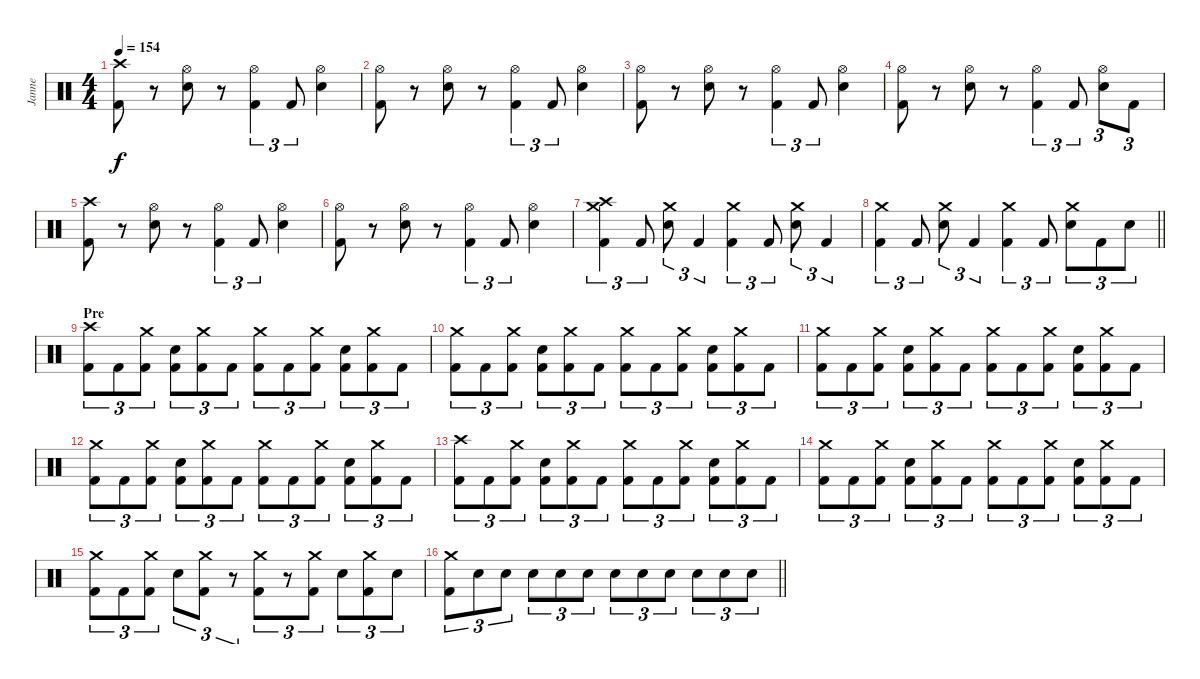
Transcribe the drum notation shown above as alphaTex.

\track ("Janne" "Janne") {instrument percussion}
\staff {score}
\articulation defaults
\ts (4 4)
\tempo 154
\clef neutral
\ks c
("Crash high (hit)" "Kick (hit) 2").8{dy f} r.8 ("Hi-Hat (open)" "Electric Snare (hit)").8 r.8 ("Hi-Hat (open)" "Kick (hit) 2").4{tu (3 2)} "Kick (hit) 2".8{tu (3 2)} ("Hi-Hat (open)" "Electric Snare (hit)").4 |
("Hi-Hat (open)" "Kick (hit) 2").8 r.8 ("Hi-Hat (open)" "Electric Snare (hit)").8 r.8 ("Hi-Hat (open)" "Kick (hit) 2").4{tu (3 2)} "Kick (hit) 2".8{tu (3 2)} ("Hi-Hat (open)" "Electric Snare (hit)").4 |
("Hi-Hat (open)" "Kick (hit) 2").8 r.8 ("Hi-Hat (open)" "Electric Snare (hit)").8 r.8 ("Hi-Hat (open)" "Kick (hit) 2").4{tu (3 2)} "Kick (hit) 2".8{tu (3 2)} ("Hi-Hat (open)" "Electric Snare (hit)").4 |
("Hi-Hat (open)" "Kick (hit) 2").8 r.8 ("Hi-Hat (open)" "Electric Snare (hit)").8 r.8 ("Hi-Hat (open)" "Kick (hit) 2").4{tu (3 2)} "Kick (hit) 2".8{tu (3 2)} ("Hi-Hat (open)" "Electric Snare (hit)").8{tu (3 2)} "Kick (hit) 2".8{tu (3 2)} |
("Crash high (hit)" "Kick (hit) 2").8 r.8 ("Hi-Hat (open)" "Electric Snare (hit)").8 r.8 ("Hi-Hat (open)" "Kick (hit) 2").4{tu (3 2)} "Kick (hit) 2".8{tu (3 2)} ("Hi-Hat (open)" "Electric Snare (hit)").4 |
("Hi-Hat (open)" "Kick (hit) 2").8 r.8 ("Hi-Hat (open)" "Electric Snare (hit)").8 r.8 ("Hi-Hat (open)" "Kick (hit) 2").4{tu (3 2)} "Kick (hit) 2".8{tu (3 2)} ("Hi-Hat (open)" "Electric Snare (hit)").4 |
("Crash high (hit)" "Crash medium (hit)" "Kick (hit) 2").4{tu (3 2)} "Kick (hit) 2".8{tu (3 2)} ("Crash medium (hit)" "Electric Snare (hit)").8{tu (3 2)} "Kick (hit) 2".4{tu (3 2)} ("Crash medium (hit)" "Kick (hit) 2").4{tu (3 2)} "Kick (hit) 2".8{tu (3 2)} ("Crash medium (hit)" "Electric Snare (hit)").8{tu (3 2)} "Kick (hit) 2".4{tu (3 2)} |
\barLineRight lightlight
("Crash medium (hit)" "Kick (hit) 2").4{tu (3 2)} "Kick (hit) 2".8{tu (3 2)} ("Crash medium (hit)" "Electric Snare (hit)").8{tu (3 2)} "Kick (hit) 2".4{tu (3 2)} ("Crash medium (hit)" "Kick (hit) 2").4{tu (3 2)} "Kick (hit) 2".8{tu (3 2)} ("Crash medium (hit)" "Electric Snare (hit)").8{tu (3 2)} "Kick (hit) 2".8{tu (3 2)} "Electric Snare (hit)".8{tu (3 2)} |
\section ("" "Pre")
("Crash high (hit)" "Kick (hit) 2").8{tu (3 2)} "Kick (hit) 2".8{tu (3 2)} ("Crash medium (hit)" "Kick (hit) 2").8{tu (3 2)} ("Electric Snare (hit)" "Kick (hit) 2").8{tu (3 2)} ("Crash medium (hit)" "Kick (hit) 2").8{tu (3 2)} "Kick (hit) 2".8{tu (3 2)} ("Crash medium (hit)" "Kick (hit) 2").8{tu (3 2)} "Kick (hit) 2".8{tu (3 2)} ("Crash medium (hit)" "Kick (hit) 2").8{tu (3 2)} ("Electric Snare (hit)" "Kick (hit) 2").8{tu (3 2)} ("Crash medium (hit)" "Kick (hit) 2").8{tu (3 2)} "Kick (hit) 2".8{tu (3 2)} |
("Crash medium (hit)" "Kick (hit) 2").8{tu (3 2)} "Kick (hit) 2".8{tu (3 2)} ("Crash medium (hit)" "Kick (hit) 2").8{tu (3 2)} ("Electric Snare (hit)" "Kick (hit) 2").8{tu (3 2)} ("Crash medium (hit)" "Kick (hit) 2").8{tu (3 2)} "Kick (hit) 2".8{tu (3 2)} ("Crash medium (hit)" "Kick (hit) 2").8{tu (3 2)} "Kick (hit) 2".8{tu (3 2)} ("Crash medium (hit)" "Kick (hit) 2").8{tu (3 2)} ("Electric Snare (hit)" "Kick (hit) 2").8{tu (3 2)} ("Crash medium (hit)" "Kick (hit) 2").8{tu (3 2)} "Kick (hit) 2".8{tu (3 2)} |
("Crash medium (hit)" "Kick (hit) 2").8{tu (3 2)} "Kick (hit) 2".8{tu (3 2)} ("Crash medium (hit)" "Kick (hit) 2").8{tu (3 2)} ("Electric Snare (hit)" "Kick (hit) 2").8{tu (3 2)} ("Crash medium (hit)" "Kick (hit) 2").8{tu (3 2)} "Kick (hit) 2".8{tu (3 2)} ("Crash medium (hit)" "Kick (hit) 2").8{tu (3 2)} "Kick (hit) 2".8{tu (3 2)} ("Crash medium (hit)" "Kick (hit) 2").8{tu (3 2)} ("Electric Snare (hit)" "Kick (hit) 2").8{tu (3 2)} ("Crash medium (hit)" "Kick (hit) 2").8{tu (3 2)} "Kick (hit) 2".8{tu (3 2)} |
("Crash medium (hit)" "Kick (hit) 2").8{tu (3 2)} "Kick (hit) 2".8{tu (3 2)} ("Crash medium (hit)" "Kick (hit) 2").8{tu (3 2)} ("Electric Snare (hit)" "Kick (hit) 2").8{tu (3 2)} ("Crash medium (hit)" "Kick (hit) 2").8{tu (3 2)} "Kick (hit) 2".8{tu (3 2)} ("Crash medium (hit)" "Kick (hit) 2").8{tu (3 2)} "Kick (hit) 2".8{tu (3 2)} ("Crash medium (hit)" "Kick (hit) 2").8{tu (3 2)} ("Electric Snare (hit)" "Kick (hit) 2").8{tu (3 2)} ("Crash medium (hit)" "Kick (hit) 2").8{tu (3 2)} "Kick (hit) 2".8{tu (3 2)} |
("Crash high (hit)" "Kick (hit) 2").8{tu (3 2)} "Kick (hit) 2".8{tu (3 2)} ("Crash medium (hit)" "Kick (hit) 2").8{tu (3 2)} ("Electric Snare (hit)" "Kick (hit) 2").8{tu (3 2)} ("Crash medium (hit)" "Kick (hit) 2").8{tu (3 2)} "Kick (hit) 2".8{tu (3 2)} ("Crash medium (hit)" "Kick (hit) 2").8{tu (3 2)} "Kick (hit) 2".8{tu (3 2)} ("Crash medium (hit)" "Kick (hit) 2").8{tu (3 2)} ("Electric Snare (hit)" "Kick (hit) 2").8{tu (3 2)} ("Crash medium (hit)" "Kick (hit) 2").8{tu (3 2)} "Kick (hit) 2".8{tu (3 2)} |
("Crash medium (hit)" "Kick (hit) 2").8{tu (3 2)} "Kick (hit) 2".8{tu (3 2)} ("Crash medium (hit)" "Kick (hit) 2").8{tu (3 2)} ("Electric Snare (hit)" "Kick (hit) 2").8{tu (3 2)} ("Crash medium (hit)" "Kick (hit) 2").8{tu (3 2)} "Kick (hit) 2".8{tu (3 2)} ("Crash medium (hit)" "Kick (hit) 2").8{tu (3 2)} "Kick (hit) 2".8{tu (3 2)} ("Crash medium (hit)" "Kick (hit) 2").8{tu (3 2)} ("Electric Snare (hit)" "Kick (hit) 2").8{tu (3 2)} ("Crash medium (hit)" "Kick (hit) 2").8{tu (3 2)} "Kick (hit) 2".8{tu (3 2)} |
("Crash medium (hit)" "Kick (hit) 2").8{tu (3 2)} "Kick (hit) 2".8{tu (3 2)} ("Crash medium (hit)" "Kick (hit) 2").8{tu (3 2)} "Electric Snare (hit)".8{tu (3 2)} ("Crash medium (hit)" "Kick (hit) 2").8{tu (3 2)} r.8{tu (3 2)} ("Crash medium (hit)" "Kick (hit) 2").8{tu (3 2)} r.8{tu (3 2)} ("Crash medium (hit)" "Kick (hit) 2").8{tu (3 2)} "Electric Snare (hit)".8{tu (3 2)} ("Crash medium (hit)" "Kick (hit) 2").8{tu (3 2)} "Electric Snare (hit)".8{tu (3 2)} |
\barLineRight lightlight
("Crash medium (hit)" "Kick (hit) 2").8{tu (3 2)} "Electric Snare (hit)".8{tu (3 2)} "Electric Snare (hit)".8{tu (3 2)} "Electric Snare (hit)".8{tu (3 2)} "Electric Snare (hit)".8{tu (3 2)} "Electric Snare (hit)".8{tu (3 2)} "Electric Snare (hit)".8{tu (3 2)} "Electric Snare (hit)".8{tu (3 2)} "Electric Snare (hit)".8{tu (3 2)} "Electric Snare (hit)".8{tu (3 2)} "Electric Snare (hit)".8{tu (3 2)} "Electric Snare (hit)".8{tu (3 2)}
